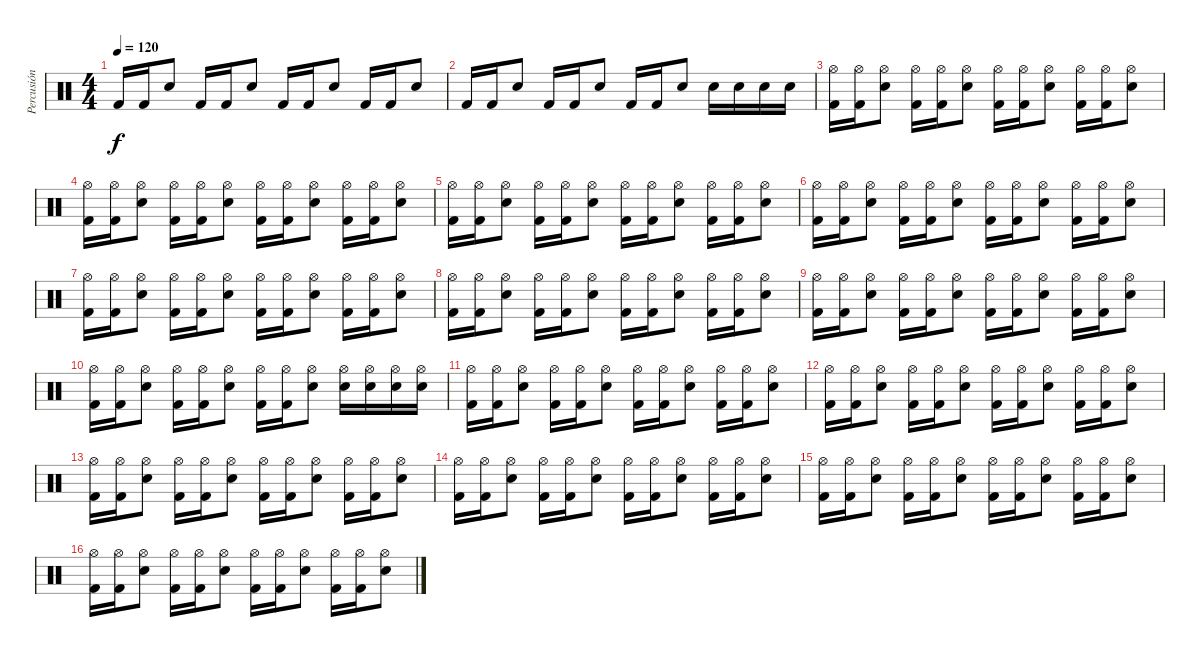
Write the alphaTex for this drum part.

\track ("Percusión" "Percusión") {instrument percussion}
\staff {score}
\articulation defaults
\ts (4 4)
\tempo 120
\clef neutral
\ks c "Kick (hit) 2".16{dy f} "Kick (hit) 2".16 "Snare (hit) 2".8 "Kick (hit) 2".16 "Kick (hit) 2".16 "Snare (hit) 2".8 "Kick (hit) 2".16 "Kick (hit) 2".16 "Snare (hit) 2".8 "Kick (hit) 2".16 "Kick (hit) 2".16 "Snare (hit) 2".8
|
"Kick (hit) 2".16 "Kick (hit) 2".16 "Snare (hit) 2".8 "Kick (hit) 2".16 "Kick (hit) 2".16 "Snare (hit) 2".8 "Kick (hit) 2".16 "Kick (hit) 2".16 "Snare (hit) 2".8 "Snare (hit) 2".16 "Electric Snare (hit)".16 "Snare (hit) 2".16 "Electric Snare (hit)".16 |
("Kick (hit) 2" "Hi-Hat (open)").16 ("Kick (hit) 2" "Hi-Hat (open)").16 ("Snare (hit) 2" "Hi-Hat (open)").8 ("Kick (hit) 2" "Hi-Hat (open)").16 ("Kick (hit) 2" "Hi-Hat (open)").16 ("Snare (hit) 2" "Hi-Hat (open)").8 ("Kick (hit) 2" "Hi-Hat (open)").16 ("Kick (hit) 2" "Hi-Hat (open)").16 ("Snare (hit) 2" "Hi-Hat (open)").8 ("Kick (hit) 2" "Hi-Hat (open)").16 ("Kick (hit) 2" "Hi-Hat (open)").16 ("Snare (hit) 2" "Hi-Hat (open)").8 |
("Kick (hit) 2" "Hi-Hat (open)").16 ("Kick (hit) 2" "Hi-Hat (open)").16 ("Snare (hit) 2" "Hi-Hat (open)").8 ("Kick (hit) 2" "Hi-Hat (open)").16 ("Kick (hit) 2" "Hi-Hat (open)").16 ("Snare (hit) 2" "Hi-Hat (open)").8 ("Kick (hit) 2" "Hi-Hat (open)").16 ("Kick (hit) 2" "Hi-Hat (open)").16 ("Snare (hit) 2" "Hi-Hat (open)").8 ("Kick (hit) 2" "Hi-Hat (open)").16 ("Kick (hit) 2" "Hi-Hat (open)").16 ("Snare (hit) 2" "Hi-Hat (open)").8 |
("Kick (hit) 2" "Hi-Hat (open)").16 ("Kick (hit) 2" "Hi-Hat (open)").16 ("Snare (hit) 2" "Hi-Hat (open)").8 ("Kick (hit) 2" "Hi-Hat (open)").16 ("Kick (hit) 2" "Hi-Hat (open)").16 ("Snare (hit) 2" "Hi-Hat (open)").8 ("Kick (hit) 2" "Hi-Hat (open)").16 ("Kick (hit) 2" "Hi-Hat (open)").16 ("Snare (hit) 2" "Hi-Hat (open)").8 ("Kick (hit) 2" "Hi-Hat (open)").16 ("Kick (hit) 2" "Hi-Hat (open)").16 ("Snare (hit) 2" "Hi-Hat (open)").8 |
("Kick (hit) 2" "Hi-Hat (open)").16 ("Kick (hit) 2" "Hi-Hat (open)").16 ("Snare (hit) 2" "Hi-Hat (open)").8 ("Kick (hit) 2" "Hi-Hat (open)").16 ("Kick (hit) 2" "Hi-Hat (open)").16 ("Snare (hit) 2" "Hi-Hat (open)").8 ("Kick (hit) 2" "Hi-Hat (open)").16 ("Kick (hit) 2" "Hi-Hat (open)").16 ("Snare (hit) 2" "Hi-Hat (open)").8 ("Kick (hit) 2" "Hi-Hat (open)").16 ("Kick (hit) 2" "Hi-Hat (open)").16 ("Snare (hit) 2" "Hi-Hat (open)").8 |
("Kick (hit) 2" "Hi-Hat (open)").16 ("Kick (hit) 2" "Hi-Hat (open)").16 ("Snare (hit) 2" "Hi-Hat (open)").8 ("Kick (hit) 2" "Hi-Hat (open)").16 ("Kick (hit) 2" "Hi-Hat (open)").16 ("Snare (hit) 2" "Hi-Hat (open)").8 ("Kick (hit) 2" "Hi-Hat (open)").16 ("Kick (hit) 2" "Hi-Hat (open)").16 ("Snare (hit) 2" "Hi-Hat (open)").8 ("Kick (hit) 2" "Hi-Hat (open)").16 ("Kick (hit) 2" "Hi-Hat (open)").16 ("Snare (hit) 2" "Hi-Hat (open)").8 |
("Kick (hit) 2" "Hi-Hat (open)").16 ("Kick (hit) 2" "Hi-Hat (open)").16 ("Snare (hit) 2" "Hi-Hat (open)").8 ("Kick (hit) 2" "Hi-Hat (open)").16 ("Kick (hit) 2" "Hi-Hat (open)").16 ("Snare (hit) 2" "Hi-Hat (open)").8 ("Kick (hit) 2" "Hi-Hat (open)").16 ("Kick (hit) 2" "Hi-Hat (open)").16 ("Snare (hit) 2" "Hi-Hat (open)").8 ("Kick (hit) 2" "Hi-Hat (open)").16 ("Kick (hit) 2" "Hi-Hat (open)").16 ("Snare (hit) 2" "Hi-Hat (open)").8 |
("Kick (hit) 2" "Hi-Hat (open)").16 ("Kick (hit) 2" "Hi-Hat (open)").16 ("Snare (hit) 2" "Hi-Hat (open)").8 ("Kick (hit) 2" "Hi-Hat (open)").16 ("Kick (hit) 2" "Hi-Hat (open)").16 ("Snare (hit) 2" "Hi-Hat (open)").8 ("Kick (hit) 2" "Hi-Hat (open)").16 ("Kick (hit) 2" "Hi-Hat (open)").16 ("Snare (hit) 2" "Hi-Hat (open)").8 ("Kick (hit) 2" "Hi-Hat (open)").16 ("Kick (hit) 2" "Hi-Hat (open)").16 ("Snare (hit) 2" "Hi-Hat (open)").8 |
("Kick (hit) 2" "Hi-Hat (open)").16 ("Kick (hit) 2" "Hi-Hat (open)").16 ("Snare (hit) 2" "Hi-Hat (open)").8 ("Kick (hit) 2" "Hi-Hat (open)").16 ("Kick (hit) 2" "Hi-Hat (open)").16 ("Snare (hit) 2" "Hi-Hat (open)").8 ("Kick (hit) 2" "Hi-Hat (open)").16 ("Kick (hit) 2" "Hi-Hat (open)").16 ("Snare (hit) 2" "Hi-Hat (open)").8 ("Snare (hit) 2" "Hi-Hat (open)").16 ("Electric Snare (hit)" "Hi-Hat (open)").16 ("Snare (hit) 2" "Hi-Hat (open)").16 ("Electric Snare (hit)" "Hi-Hat (open)").16 |
("Kick (hit) 2" "Hi-Hat (open)").16 ("Kick (hit) 2" "Hi-Hat (open)").16 ("Snare (hit) 2" "Hi-Hat (open)").8 ("Kick (hit) 2" "Hi-Hat (open)").16 ("Kick (hit) 2" "Hi-Hat (open)").16 ("Snare (hit) 2" "Hi-Hat (open)").8 ("Kick (hit) 2" "Hi-Hat (open)").16 ("Kick (hit) 2" "Hi-Hat (open)").16 ("Snare (hit) 2" "Hi-Hat (open)").8 ("Kick (hit) 2" "Hi-Hat (open)").16 ("Kick (hit) 2" "Hi-Hat (open)").16 ("Snare (hit) 2" "Hi-Hat (open)").8 |
("Kick (hit) 2" "Hi-Hat (open)").16 ("Kick (hit) 2" "Hi-Hat (open)").16 ("Snare (hit) 2" "Hi-Hat (open)").8 ("Kick (hit) 2" "Hi-Hat (open)").16 ("Kick (hit) 2" "Hi-Hat (open)").16 ("Snare (hit) 2" "Hi-Hat (open)").8 ("Kick (hit) 2" "Hi-Hat (open)").16 ("Kick (hit) 2" "Hi-Hat (open)").16 ("Snare (hit) 2" "Hi-Hat (open)").8 ("Kick (hit) 2" "Hi-Hat (open)").16 ("Kick (hit) 2" "Hi-Hat (open)").16 ("Snare (hit) 2" "Hi-Hat (open)").8 |
("Kick (hit) 2" "Hi-Hat (open)").16 ("Kick (hit) 2" "Hi-Hat (open)").16 ("Snare (hit) 2" "Hi-Hat (open)").8 ("Kick (hit) 2" "Hi-Hat (open)").16 ("Kick (hit) 2" "Hi-Hat (open)").16 ("Snare (hit) 2" "Hi-Hat (open)").8 ("Kick (hit) 2" "Hi-Hat (open)").16 ("Kick (hit) 2" "Hi-Hat (open)").16 ("Snare (hit) 2" "Hi-Hat (open)").8 ("Kick (hit) 2" "Hi-Hat (open)").16 ("Kick (hit) 2" "Hi-Hat (open)").16 ("Snare (hit) 2" "Hi-Hat (open)").8 |
("Kick (hit) 2" "Hi-Hat (open)").16 ("Kick (hit) 2" "Hi-Hat (open)").16 ("Snare (hit) 2" "Hi-Hat (open)").8 ("Kick (hit) 2" "Hi-Hat (open)").16 ("Kick (hit) 2" "Hi-Hat (open)").16 ("Snare (hit) 2" "Hi-Hat (open)").8 ("Kick (hit) 2" "Hi-Hat (open)").16 ("Kick (hit) 2" "Hi-Hat (open)").16 ("Snare (hit) 2" "Hi-Hat (open)").8 ("Kick (hit) 2" "Hi-Hat (open)").16 ("Kick (hit) 2" "Hi-Hat (open)").16 ("Snare (hit) 2" "Hi-Hat (open)").8 |
("Kick (hit) 2" "Hi-Hat (open)").16 ("Kick (hit) 2" "Hi-Hat (open)").16 ("Snare (hit) 2" "Hi-Hat (open)").8 ("Kick (hit) 2" "Hi-Hat (open)").16 ("Kick (hit) 2" "Hi-Hat (open)").16 ("Snare (hit) 2" "Hi-Hat (open)").8 ("Kick (hit) 2" "Hi-Hat (open)").16 ("Kick (hit) 2" "Hi-Hat (open)").16 ("Snare (hit) 2" "Hi-Hat (open)").8 ("Kick (hit) 2" "Hi-Hat (open)").16 ("Kick (hit) 2" "Hi-Hat (open)").16 ("Snare (hit) 2" "Hi-Hat (open)").8 |
("Kick (hit) 2" "Hi-Hat (open)").16 ("Kick (hit) 2" "Hi-Hat (open)").16 ("Snare (hit) 2" "Hi-Hat (open)").8 ("Kick (hit) 2" "Hi-Hat (open)").16 ("Kick (hit) 2" "Hi-Hat (open)").16 ("Snare (hit) 2" "Hi-Hat (open)").8 ("Kick (hit) 2" "Hi-Hat (open)").16 ("Kick (hit) 2" "Hi-Hat (open)").16 ("Snare (hit) 2" "Hi-Hat (open)").8 ("Kick (hit) 2" "Hi-Hat (open)").16 ("Kick (hit) 2" "Hi-Hat (open)").16 ("Snare (hit) 2" "Hi-Hat (open)").8
